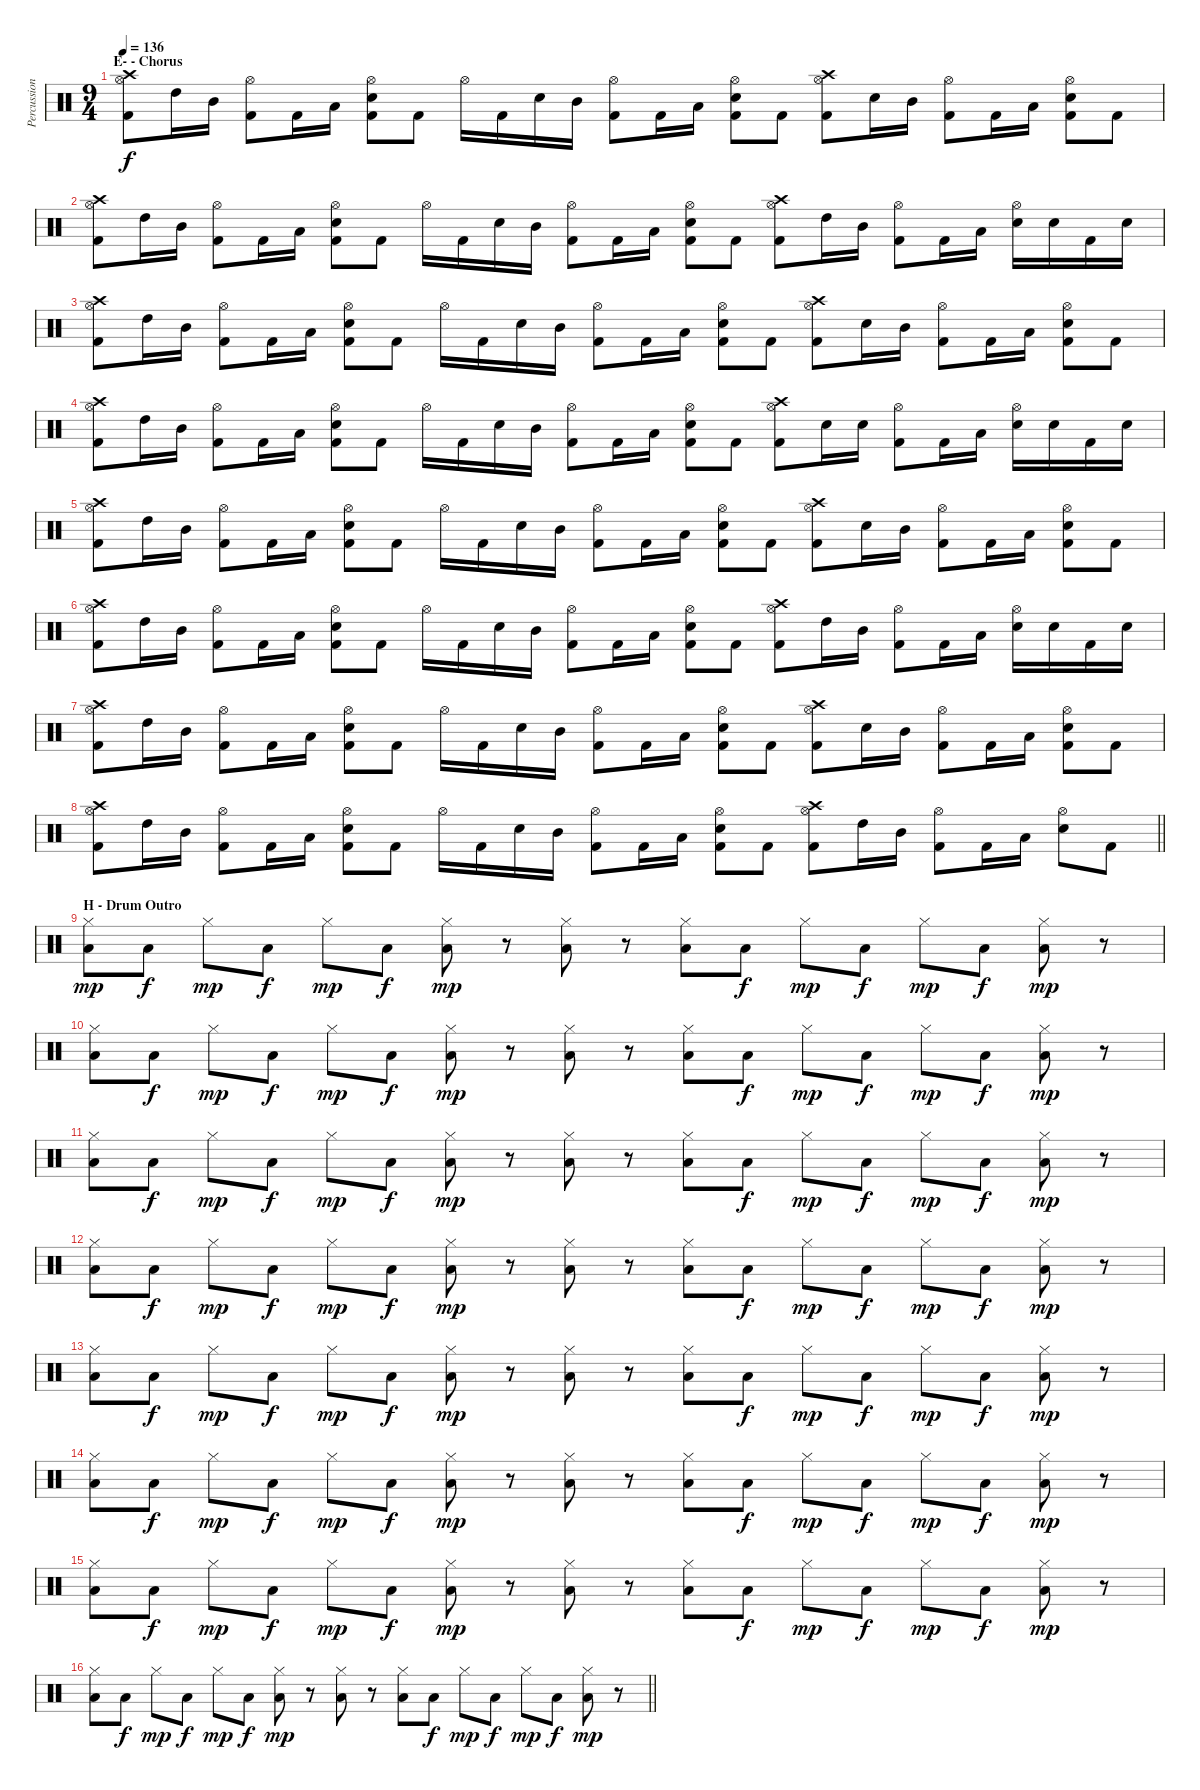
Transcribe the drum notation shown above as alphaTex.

\track ("Percussions" "Percussion") {instrument percussion}
\staff {score}
\articulation defaults
\ts (9 4)
\section ("" "E- - Chorus")
\tempo 136
\clef neutral
\ks c
("Crash high (hit)" "Hi-Hat (open)" "Kick (hit) 2").8{dy f} "High Tom (hit)".16 "Mid Tom (hit)".16 ("Hi-Hat (open)" "Kick (hit) 2").8 "Kick (hit) 2".16 "Low Tom (hit)".16 ("Hi-Hat (open)" "Snare (hit) 2" "Kick (hit) 2").8 "Kick (hit) 2".8 "Hi-Hat (open)".16 "Kick (hit) 2".16 "Snare (hit) 2".16 "Mid Tom (hit)".16 ("Hi-Hat (open)" "Kick (hit) 2").8 "Kick (hit) 2".16 "Low Tom (hit)".16 ("Hi-Hat (open)" "Snare (hit) 2" "Kick (hit) 2").8 "Kick (hit) 2".8 ("Crash high (hit)" "Hi-Hat (open)" "Kick (hit) 2").8 "Snare (hit) 2".16 "Mid Tom (hit)".16 ("Hi-Hat (open)" "Kick (hit) 2").8 "Kick (hit) 2".16 "Low Tom (hit)".16 ("Hi-Hat (open)" "Snare (hit) 2" "Kick (hit) 2").8 "Kick (hit) 2".8 |
("Crash high (hit)" "Hi-Hat (open)" "Kick (hit) 2").8 "High Tom (hit)".16 "Mid Tom (hit)".16 ("Hi-Hat (open)" "Kick (hit) 2").8 "Kick (hit) 2".16 "Low Tom (hit)".16 ("Hi-Hat (open)" "Snare (hit) 2" "Kick (hit) 2").8 "Kick (hit) 2".8 "Hi-Hat (open)".16 "Kick (hit) 2".16 "Snare (hit) 2".16 "Mid Tom (hit)".16 ("Hi-Hat (open)" "Kick (hit) 2").8 "Kick (hit) 2".16 "Low Tom (hit)".16 ("Hi-Hat (open)" "Snare (hit) 2" "Kick (hit) 2").8 "Kick (hit) 2".8 ("Crash high (hit)" "Hi-Hat (open)" "Kick (hit) 2").8 "High Tom (hit)".16 "Mid Tom (hit)".16 ("Hi-Hat (open)" "Kick (hit) 2").8 "Kick (hit) 2".16 "Low Tom (hit)".16 ("Hi-Hat (open)" "Snare (hit) 2").16 "Snare (hit) 2".16 "Kick (hit) 2".16 "Snare (hit) 2".16 |
("Crash high (hit)" "Hi-Hat (open)" "Kick (hit) 2").8 "High Tom (hit)".16 "Mid Tom (hit)".16 ("Hi-Hat (open)" "Kick (hit) 2").8 "Kick (hit) 2".16 "Low Tom (hit)".16 ("Hi-Hat (open)" "Snare (hit) 2" "Kick (hit) 2").8 "Kick (hit) 2".8 "Hi-Hat (open)".16 "Kick (hit) 2".16 "Snare (hit) 2".16 "Mid Tom (hit)".16 ("Hi-Hat (open)" "Kick (hit) 2").8 "Kick (hit) 2".16 "Low Tom (hit)".16 ("Hi-Hat (open)" "Snare (hit) 2" "Kick (hit) 2").8 "Kick (hit) 2".8 ("Crash high (hit)" "Hi-Hat (open)" "Kick (hit) 2").8 "Snare (hit) 2".16 "Mid Tom (hit)".16 ("Hi-Hat (open)" "Kick (hit) 2").8 "Kick (hit) 2".16 "Low Tom (hit)".16 ("Hi-Hat (open)" "Snare (hit) 2" "Kick (hit) 2").8 "Kick (hit) 2".8 |
("Crash high (hit)" "Hi-Hat (open)" "Kick (hit) 2").8 "High Tom (hit)".16 "Mid Tom (hit)".16 ("Hi-Hat (open)" "Kick (hit) 2").8 "Kick (hit) 2".16 "Low Tom (hit)".16 ("Hi-Hat (open)" "Snare (hit) 2" "Kick (hit) 2").8 "Kick (hit) 2".8 "Hi-Hat (open)".16 "Kick (hit) 2".16 "Snare (hit) 2".16 "Mid Tom (hit)".16 ("Hi-Hat (open)" "Kick (hit) 2").8 "Kick (hit) 2".16 "Low Tom (hit)".16 ("Hi-Hat (open)" "Snare (hit) 2" "Kick (hit) 2").8 "Kick (hit) 2".8 ("Crash high (hit)" "Hi-Hat (open)" "Kick (hit) 2").8 "Snare (hit) 2".16 "Snare (hit) 2".16 ("Hi-Hat (open)" "Kick (hit) 2").8 "Kick (hit) 2".16 "Low Tom (hit)".16 ("Hi-Hat (open)" "Snare (hit) 2").16 "Snare (hit) 2".16 "Kick (hit) 2".16 "Snare (hit) 2".16 |
("Crash high (hit)" "Hi-Hat (open)" "Kick (hit) 2").8 "High Tom (hit)".16 "Mid Tom (hit)".16 ("Hi-Hat (open)" "Kick (hit) 2").8 "Kick (hit) 2".16 "Low Tom (hit)".16 ("Hi-Hat (open)" "Snare (hit) 2" "Kick (hit) 2").8 "Kick (hit) 2".8 "Hi-Hat (open)".16 "Kick (hit) 2".16 "Snare (hit) 2".16 "Mid Tom (hit)".16 ("Hi-Hat (open)" "Kick (hit) 2").8 "Kick (hit) 2".16 "Low Tom (hit)".16 ("Hi-Hat (open)" "Snare (hit) 2" "Kick (hit) 2").8 "Kick (hit) 2".8 ("Crash high (hit)" "Hi-Hat (open)" "Kick (hit) 2").8 "Snare (hit) 2".16 "Mid Tom (hit)".16 ("Hi-Hat (open)" "Kick (hit) 2").8 "Kick (hit) 2".16 "Low Tom (hit)".16 ("Hi-Hat (open)" "Snare (hit) 2" "Kick (hit) 2").8 "Kick (hit) 2".8 |
("Crash high (hit)" "Hi-Hat (open)" "Kick (hit) 2").8 "High Tom (hit)".16 "Mid Tom (hit)".16 ("Hi-Hat (open)" "Kick (hit) 2").8 "Kick (hit) 2".16 "Low Tom (hit)".16 ("Hi-Hat (open)" "Snare (hit) 2" "Kick (hit) 2").8 "Kick (hit) 2".8 "Hi-Hat (open)".16 "Kick (hit) 2".16 "Snare (hit) 2".16 "Mid Tom (hit)".16 ("Hi-Hat (open)" "Kick (hit) 2").8 "Kick (hit) 2".16 "Low Tom (hit)".16 ("Hi-Hat (open)" "Snare (hit) 2" "Kick (hit) 2").8 "Kick (hit) 2".8 ("Crash high (hit)" "Hi-Hat (open)" "Kick (hit) 2").8 "High Tom (hit)".16 "Mid Tom (hit)".16 ("Hi-Hat (open)" "Kick (hit) 2").8 "Kick (hit) 2".16 "Low Tom (hit)".16 ("Hi-Hat (open)" "Snare (hit) 2").16 "Snare (hit) 2".16 "Kick (hit) 2".16 "Snare (hit) 2".16 |
("Crash high (hit)" "Hi-Hat (open)" "Kick (hit) 2").8 "High Tom (hit)".16 "Mid Tom (hit)".16 ("Hi-Hat (open)" "Kick (hit) 2").8 "Kick (hit) 2".16 "Low Tom (hit)".16 ("Hi-Hat (open)" "Snare (hit) 2" "Kick (hit) 2").8 "Kick (hit) 2".8 "Hi-Hat (open)".16 "Kick (hit) 2".16 "Snare (hit) 2".16 "Mid Tom (hit)".16 ("Hi-Hat (open)" "Kick (hit) 2").8 "Kick (hit) 2".16 "Low Tom (hit)".16 ("Hi-Hat (open)" "Snare (hit) 2" "Kick (hit) 2").8 "Kick (hit) 2".8 ("Crash high (hit)" "Hi-Hat (open)" "Kick (hit) 2").8 "Snare (hit) 2".16 "Mid Tom (hit)".16 ("Hi-Hat (open)" "Kick (hit) 2").8 "Kick (hit) 2".16 "Low Tom (hit)".16 ("Hi-Hat (open)" "Snare (hit) 2" "Kick (hit) 2").8 "Kick (hit) 2".8 |
\barLineRight lightlight
("Crash high (hit)" "Hi-Hat (open)" "Kick (hit) 2").8 "High Tom (hit)".16 "Mid Tom (hit)".16 ("Hi-Hat (open)" "Kick (hit) 2").8 "Kick (hit) 2".16 "Low Tom (hit)".16 ("Hi-Hat (open)" "Snare (hit) 2" "Kick (hit) 2").8 "Kick (hit) 2".8 "Hi-Hat (open)".16 "Kick (hit) 2".16 "Snare (hit) 2".16 "Mid Tom (hit)".16 ("Hi-Hat (open)" "Kick (hit) 2").8 "Kick (hit) 2".16 "Low Tom (hit)".16 ("Hi-Hat (open)" "Snare (hit) 2" "Kick (hit) 2").8 "Kick (hit) 2".8 ("Crash high (hit)" "Hi-Hat (open)" "Kick (hit) 2").8 "High Tom (hit)".16 "Mid Tom (hit)".16 ("Hi-Hat (open)" "Kick (hit) 2").8 "Kick (hit) 2".16 "Low Tom (hit)".16 ("Hi-Hat (open)" "Snare (hit) 2").8 "Kick (hit) 2".8 |
\section ("" "H - Drum Outro")
("Hi-Hat (closed)" "Low Tom (hit)").8{dy mp} "Low Tom (hit)".8{dy f} "Hi-Hat (closed)".8{dy mp} "Low Tom (hit)".8{dy f} "Hi-Hat (closed)".8{dy mp} "Low Tom (hit)".8{dy f} ("Hi-Hat (closed)" "Low Tom (hit)").8{dy mp} r.8 ("Hi-Hat (closed)" "Low Tom (hit)").8 r.8 ("Hi-Hat (closed)" "Low Tom (hit)").8 "Low Tom (hit)".8{dy f} "Hi-Hat (closed)".8{dy mp} "Low Tom (hit)".8{dy f} "Hi-Hat (closed)".8{dy mp} "Low Tom (hit)".8{dy f} ("Hi-Hat (closed)" "Low Tom (hit)").8{dy mp} r.8 |
("Hi-Hat (closed)" "Low Tom (hit)").8 "Low Tom (hit)".8{dy f} "Hi-Hat (closed)".8{dy mp} "Low Tom (hit)".8{dy f} "Hi-Hat (closed)".8{dy mp} "Low Tom (hit)".8{dy f} ("Hi-Hat (closed)" "Low Tom (hit)").8{dy mp} r.8 ("Hi-Hat (closed)" "Low Tom (hit)").8 r.8 ("Hi-Hat (closed)" "Low Tom (hit)").8 "Low Tom (hit)".8{dy f} "Hi-Hat (closed)".8{dy mp} "Low Tom (hit)".8{dy f} "Hi-Hat (closed)".8{dy mp} "Low Tom (hit)".8{dy f} ("Hi-Hat (closed)" "Low Tom (hit)").8{dy mp} r.8 |
("Hi-Hat (closed)" "Low Tom (hit)").8 "Low Tom (hit)".8{dy f} "Hi-Hat (closed)".8{dy mp} "Low Tom (hit)".8{dy f} "Hi-Hat (closed)".8{dy mp} "Low Tom (hit)".8{dy f} ("Hi-Hat (closed)" "Low Tom (hit)").8{dy mp} r.8 ("Hi-Hat (closed)" "Low Tom (hit)").8 r.8 ("Hi-Hat (closed)" "Low Tom (hit)").8 "Low Tom (hit)".8{dy f} "Hi-Hat (closed)".8{dy mp} "Low Tom (hit)".8{dy f} "Hi-Hat (closed)".8{dy mp} "Low Tom (hit)".8{dy f} ("Hi-Hat (closed)" "Low Tom (hit)").8{dy mp} r.8 |
("Hi-Hat (closed)" "Low Tom (hit)").8 "Low Tom (hit)".8{dy f} "Hi-Hat (closed)".8{dy mp} "Low Tom (hit)".8{dy f} "Hi-Hat (closed)".8{dy mp} "Low Tom (hit)".8{dy f} ("Hi-Hat (closed)" "Low Tom (hit)").8{dy mp} r.8 ("Hi-Hat (closed)" "Low Tom (hit)").8 r.8 ("Hi-Hat (closed)" "Low Tom (hit)").8 "Low Tom (hit)".8{dy f} "Hi-Hat (closed)".8{dy mp} "Low Tom (hit)".8{dy f} "Hi-Hat (closed)".8{dy mp} "Low Tom (hit)".8{dy f} ("Hi-Hat (closed)" "Low Tom (hit)").8{dy mp} r.8 |
("Hi-Hat (closed)" "Low Tom (hit)").8 "Low Tom (hit)".8{dy f} "Hi-Hat (closed)".8{dy mp} "Low Tom (hit)".8{dy f} "Hi-Hat (closed)".8{dy mp} "Low Tom (hit)".8{dy f} ("Hi-Hat (closed)" "Low Tom (hit)").8{dy mp} r.8 ("Hi-Hat (closed)" "Low Tom (hit)").8 r.8 ("Hi-Hat (closed)" "Low Tom (hit)").8 "Low Tom (hit)".8{dy f} "Hi-Hat (closed)".8{dy mp} "Low Tom (hit)".8{dy f} "Hi-Hat (closed)".8{dy mp} "Low Tom (hit)".8{dy f} ("Hi-Hat (closed)" "Low Tom (hit)").8{dy mp} r.8 |
("Hi-Hat (closed)" "Low Tom (hit)").8 "Low Tom (hit)".8{dy f} "Hi-Hat (closed)".8{dy mp} "Low Tom (hit)".8{dy f} "Hi-Hat (closed)".8{dy mp} "Low Tom (hit)".8{dy f} ("Hi-Hat (closed)" "Low Tom (hit)").8{dy mp} r.8 ("Hi-Hat (closed)" "Low Tom (hit)").8 r.8 ("Hi-Hat (closed)" "Low Tom (hit)").8 "Low Tom (hit)".8{dy f} "Hi-Hat (closed)".8{dy mp} "Low Tom (hit)".8{dy f} "Hi-Hat (closed)".8{dy mp} "Low Tom (hit)".8{dy f} ("Hi-Hat (closed)" "Low Tom (hit)").8{dy mp} r.8 |
("Hi-Hat (closed)" "Low Tom (hit)").8 "Low Tom (hit)".8{dy f} "Hi-Hat (closed)".8{dy mp} "Low Tom (hit)".8{dy f} "Hi-Hat (closed)".8{dy mp} "Low Tom (hit)".8{dy f} ("Hi-Hat (closed)" "Low Tom (hit)").8{dy mp} r.8 ("Hi-Hat (closed)" "Low Tom (hit)").8 r.8 ("Hi-Hat (closed)" "Low Tom (hit)").8 "Low Tom (hit)".8{dy f} "Hi-Hat (closed)".8{dy mp} "Low Tom (hit)".8{dy f} "Hi-Hat (closed)".8{dy mp} "Low Tom (hit)".8{dy f} ("Hi-Hat (closed)" "Low Tom (hit)").8{dy mp} r.8 |
\barLineRight lightlight
("Hi-Hat (closed)" "Low Tom (hit)").8 "Low Tom (hit)".8{dy f} "Hi-Hat (closed)".8{dy mp} "Low Tom (hit)".8{dy f} "Hi-Hat (closed)".8{dy mp} "Low Tom (hit)".8{dy f} ("Hi-Hat (closed)" "Low Tom (hit)").8{dy mp} r.8 ("Hi-Hat (closed)" "Low Tom (hit)").8 r.8 ("Hi-Hat (closed)" "Low Tom (hit)").8 "Low Tom (hit)".8{dy f} "Hi-Hat (closed)".8{dy mp} "Low Tom (hit)".8{dy f} "Hi-Hat (closed)".8{dy mp} "Low Tom (hit)".8{dy f} ("Hi-Hat (closed)" "Low Tom (hit)").8{dy mp} r.8
